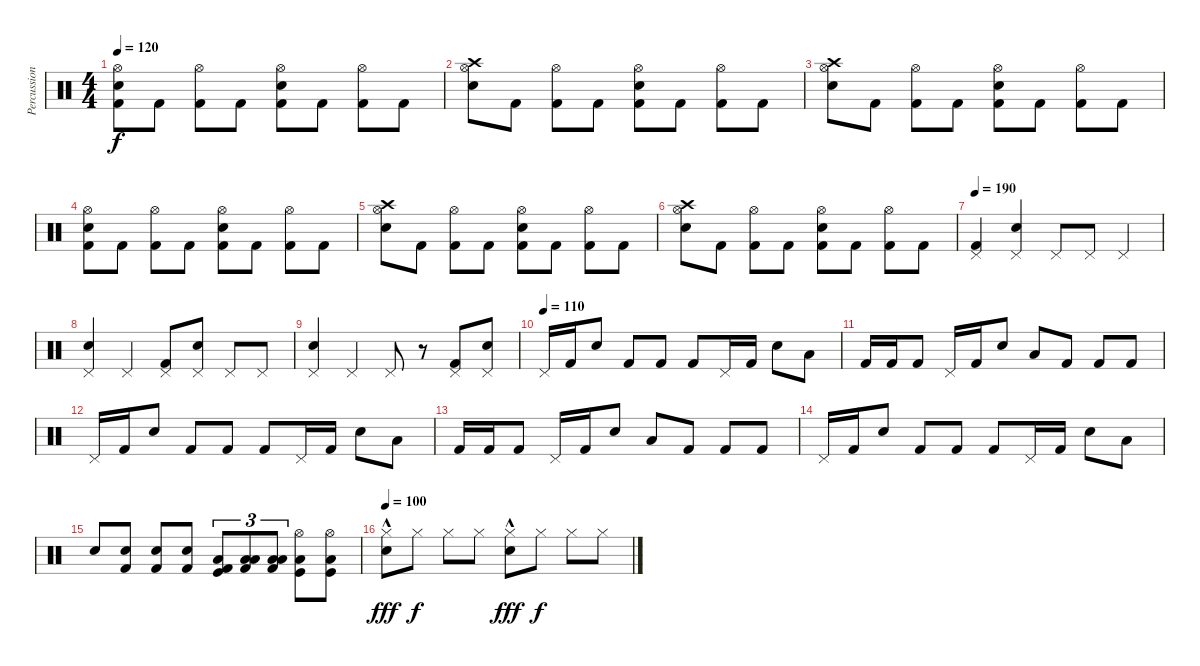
\track ("Percussion" "Percussion") {instrument percussion}
\staff {score}
\articulation defaults
\ts (4 4)
\tempo 120
\clef neutral
\ks c
("Hi-Hat (open)" "Electric Snare (hit)" "Kick (hit) 2").8{dy f} "Kick (hit) 2".8 ("Hi-Hat (open)" "Kick (hit) 2").8 "Kick (hit) 2".8 ("Hi-Hat (open)" "Electric Snare (hit)" "Kick (hit) 2").8 "Kick (hit) 2".8 ("Hi-Hat (open)" "Kick (hit) 2").8 "Kick (hit) 2".8 |
("Hi-Hat (open)" "Electric Snare (hit)" "Crash high (hit)").8 "Kick (hit) 2".8 ("Hi-Hat (open)" "Kick (hit) 2").8 "Kick (hit) 2".8 ("Hi-Hat (open)" "Electric Snare (hit)" "Kick (hit) 2").8 "Kick (hit) 2".8 ("Hi-Hat (open)" "Kick (hit) 2").8 "Kick (hit) 2".8 |
("Hi-Hat (open)" "Electric Snare (hit)" "Crash high (hit)").8 "Kick (hit) 2".8 ("Hi-Hat (open)" "Kick (hit) 2").8 "Kick (hit) 2".8 ("Hi-Hat (open)" "Electric Snare (hit)" "Kick (hit) 2").8 "Kick (hit) 2".8 ("Hi-Hat (open)" "Kick (hit) 2").8 "Kick (hit) 2".8 |
("Hi-Hat (open)" "Electric Snare (hit)" "Kick (hit) 2").8 "Kick (hit) 2".8 ("Hi-Hat (open)" "Kick (hit) 2").8 "Kick (hit) 2".8 ("Hi-Hat (open)" "Electric Snare (hit)" "Kick (hit) 2").8 "Kick (hit) 2".8 ("Hi-Hat (open)" "Kick (hit) 2").8 "Kick (hit) 2".8 |
("Hi-Hat (open)" "Electric Snare (hit)" "Crash high (hit)").8 "Kick (hit) 2".8 ("Hi-Hat (open)" "Kick (hit) 2").8 "Kick (hit) 2".8 ("Hi-Hat (open)" "Electric Snare (hit)" "Kick (hit) 2").8 "Kick (hit) 2".8 ("Hi-Hat (open)" "Kick (hit) 2").8 "Kick (hit) 2".8 |
("Hi-Hat (open)" "Electric Snare (hit)" "Crash high (hit)").8 "Kick (hit) 2".8 ("Hi-Hat (open)" "Kick (hit) 2").8 "Kick (hit) 2".8 ("Hi-Hat (open)" "Electric Snare (hit)" "Kick (hit) 2").8 "Kick (hit) 2".8 ("Hi-Hat (open)" "Kick (hit) 2").8 "Kick (hit) 2".8 |
\tempo 190
("Kick (hit) 2" "Pedal Hi-Hat (hit)").4 ("Electric Snare (hit)" "Pedal Hi-Hat (hit)").4 "Pedal Hi-Hat (hit)".8 "Pedal Hi-Hat (hit)".8 "Pedal Hi-Hat (hit)".4 |
("Electric Snare (hit)" "Pedal Hi-Hat (hit)").4 "Pedal Hi-Hat (hit)".4 ("Kick (hit) 2" "Pedal Hi-Hat (hit)").8 ("Electric Snare (hit)" "Pedal Hi-Hat (hit)").8 "Pedal Hi-Hat (hit)".8 "Pedal Hi-Hat (hit)".8 |
("Electric Snare (hit)" "Pedal Hi-Hat (hit)").4 "Pedal Hi-Hat (hit)".4 "Pedal Hi-Hat (hit)".8 r.8 ("Kick (hit) 2" "Pedal Hi-Hat (hit)").8 ("Electric Snare (hit)" "Pedal Hi-Hat (hit)").8 |
\tempo (110)
"Pedal Hi-Hat (hit)".16 "Kick (hit) 2".16 "Electric Snare (hit)".8 "Kick (hit) 2".8 "Kick (hit) 2".8 "Kick (hit) 2".8 "Pedal Hi-Hat (hit)".16 "Kick (hit) 2".16 "Electric Snare (hit)".8 "Low Floor Tom (hit)".8 |
"Kick (hit) 2".16 "Kick (hit) 2".16 "Kick (hit) 2".8 "Pedal Hi-Hat (hit)".16 "Kick (hit) 2".16 "Electric Snare (hit)".8 "Low Floor Tom (hit)".8 "Kick (hit) 2".8 "Kick (hit) 2".8 "Kick (hit) 2".8 |
"Pedal Hi-Hat (hit)".16 "Kick (hit) 2".16 "Electric Snare (hit)".8 "Kick (hit) 2".8 "Kick (hit) 2".8 "Kick (hit) 2".8 "Pedal Hi-Hat (hit)".16 "Kick (hit) 2".16 "Electric Snare (hit)".8 "Low Floor Tom (hit)".8 |
"Kick (hit) 2".16 "Kick (hit) 2".16 "Kick (hit) 2".8 "Pedal Hi-Hat (hit)".16 "Kick (hit) 2".16 "Electric Snare (hit)".8 "Low Floor Tom (hit)".8 "Kick (hit) 2".8 "Kick (hit) 2".8 "Kick (hit) 2".8 |
"Pedal Hi-Hat (hit)".16 "Kick (hit) 2".16 "Electric Snare (hit)".8 "Kick (hit) 2".8 "Kick (hit) 2".8 "Kick (hit) 2".8 "Pedal Hi-Hat (hit)".16 "Kick (hit) 2".16 "Electric Snare (hit)".8 "Low Floor Tom (hit)".8 |
"Electric Snare (hit)".8 ("Electric Snare (hit)" "Kick (hit) 2").8 ("Electric Snare (hit)" "Kick (hit) 2").8 ("Electric Snare (hit)" "Kick (hit) 2").8 ("Kick (hit)" "Kick (hit) 2" "Low Tom (hit)").8{tu (3 2)} ("Kick (hit) 2" "Low Floor Tom (hit)" "Low Tom (hit)").8{tu (3 2)} ("Low Floor Tom (hit)" "Kick (hit) 2" "Low Tom (hit)").8{tu (3 2)} ("Low Floor Tom (hit)" "Hi-Hat (open)" "Kick (hit)").8 ("Low Floor Tom (hit)" "Hi-Hat (open)" "Kick (hit)").8 |
\tempo 100
("Hi-Hat (closed)" "Electric Snare (hit)"{hac}).8{dy fff} "Hi-Hat (closed)".8{dy f} "Hi-Hat (closed)".8 "Hi-Hat (closed)".8 ("Hi-Hat (closed)" "Electric Snare (hit)"{hac}).8{dy fff} "Hi-Hat (closed)".8{dy f} "Hi-Hat (closed)".8 "Hi-Hat (closed)".8
